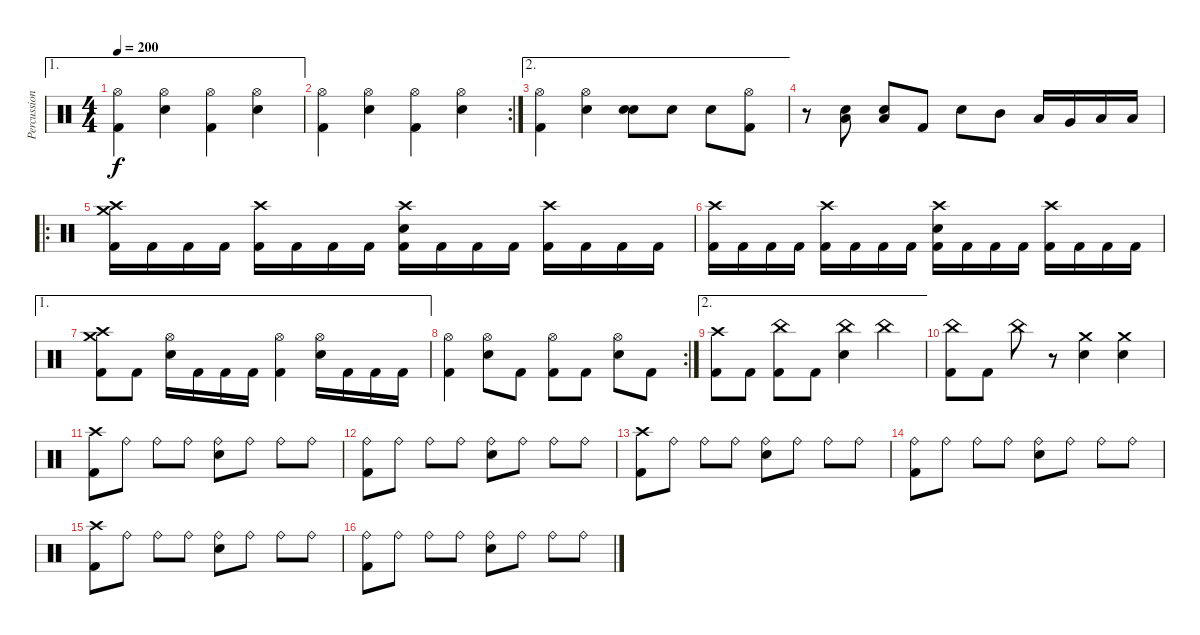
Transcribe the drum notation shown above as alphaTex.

\track ("Percussions" "Percussion") {instrument percussion}
\staff {score}
\articulation defaults
\ae 1
\ts (4 4)
\tempo 200
\clef neutral
\ks c
("Hi-Hat (open)" "Kick (hit) 2").4{dy f} ("Hi-Hat (open)" "Snare (hit) 2").4 ("Hi-Hat (open)" "Kick (hit) 2").4 ("Hi-Hat (open)" "Snare (hit) 2").4 |
\rc 2
("Hi-Hat (open)" "Kick (hit) 2").4 ("Hi-Hat (open)" "Snare (hit) 2").4 ("Hi-Hat (open)" "Kick (hit) 2").4 ("Hi-Hat (open)" "Snare (hit) 2").4 |
\ae 2
("Hi-Hat (open)" "Kick (hit) 2").4 ("Hi-Hat (open)" "Snare (hit) 2").4 ("Snare (hit) 2" "Snare (hit) 2").8{bd 240} "Snare (hit) 2".8 "Snare (hit) 2".8 ("Hi-Hat (open)" "Kick (hit) 2").8 |
r.8 ("Low Floor Tom (hit)" "Snare (hit) 2").8 ("Low Floor Tom (hit)" "Snare (hit) 2").8 "Kick (hit) 2".8 "Snare (hit) 2".8 "Mid Tom (hit)".8 "Low Tom (hit)".16 "Very Low Tom (hit)".16 "Low Floor Tom (hit)".16 "Low Floor Tom (hit)".16 |
\ro
("Crash high (hit)" "Crash medium (hit)" "Kick (hit) 2").16 "Kick (hit) 2".16 "Kick (hit) 2".16 "Kick (hit) 2".16 ("Crash high (hit)" "Kick (hit) 2").16 "Kick (hit) 2".16 "Kick (hit) 2".16 "Kick (hit) 2".16 ("Crash high (hit)" "Snare (hit) 2" "Kick (hit) 2").16 "Kick (hit) 2".16 "Kick (hit) 2".16 "Kick (hit) 2".16 ("Crash high (hit)" "Kick (hit) 2").16 "Kick (hit) 2".16 "Kick (hit) 2".16 "Kick (hit) 2".16 |
("Crash high (hit)" "Kick (hit) 2").16 "Kick (hit) 2".16 "Kick (hit) 2".16 "Kick (hit) 2".16 ("Crash high (hit)" "Kick (hit) 2").16 "Kick (hit) 2".16 "Kick (hit) 2".16 "Kick (hit) 2".16 ("Crash high (hit)" "Snare (hit) 2" "Kick (hit) 2").16 "Kick (hit) 2".16 "Kick (hit) 2".16 "Kick (hit) 2".16 ("Crash high (hit)" "Kick (hit) 2").16 "Kick (hit) 2".16 "Kick (hit) 2".16 "Kick (hit) 2".16 |
\ae 1
("Crash medium (hit)" "Crash high (hit)" "Kick (hit) 2").8 "Kick (hit) 2".8 ("Hi-Hat (open)" "Snare (hit) 2").16 "Kick (hit) 2".16 "Kick (hit) 2".16 "Kick (hit) 2".16 ("Hi-Hat (open)" "Kick (hit) 2").4 ("Hi-Hat (open)" "Snare (hit) 2").16 "Kick (hit) 2".16 "Kick (hit) 2".16 "Kick (hit) 2".16 |
\rc 2
("Hi-Hat (open)" "Kick (hit) 2").4 ("Hi-Hat (open)" "Snare (hit) 2").8 "Kick (hit) 2".8 ("Hi-Hat (open)" "Kick (hit) 2").8 "Kick (hit) 2".8 ("Hi-Hat (open)" "Snare (hit) 2").8 "Kick (hit) 2".8 |
\ae 2
("Crash high (hit)" "Kick (hit) 2").8 "Kick (hit) 2".8 ("China (hit)" "Kick (hit) 2").8 "Kick (hit) 2".8 ("China (hit)" "Snare (hit) 2").4 "China (hit)".4 |
("China (hit)" "Kick (hit) 2").8 "Kick (hit) 2".8 "China (hit)".8 r.8 ("Crash medium (hit)" "Snare (hit) 2").4 ("Crash medium (hit)" "Snare (hit) 2").4 |
("Crash high (hit)" "Kick (hit) 2").8 "Ride (bell)".8 "Ride (bell)".8 "Ride (bell)".8 ("Ride (bell)" "Snare (hit) 2").8 "Ride (bell)".8 "Ride (bell)".8 "Ride (bell)".8 |
("Ride (bell)" "Kick (hit) 2").8 "Ride (bell)".8 "Ride (bell)".8 "Ride (bell)".8 ("Ride (bell)" "Snare (hit) 2").8 "Ride (bell)".8 "Ride (bell)".8 "Ride (bell)".8 |
("Crash high (hit)" "Kick (hit) 2").8 "Ride (bell)".8 "Ride (bell)".8 "Ride (bell)".8 ("Ride (bell)" "Snare (hit) 2").8 "Ride (bell)".8 "Ride (bell)".8 "Ride (bell)".8 |
("Ride (bell)" "Kick (hit) 2").8 "Ride (bell)".8 "Ride (bell)".8 "Ride (bell)".8 ("Ride (bell)" "Snare (hit) 2").8 "Ride (bell)".8 "Ride (bell)".8 "Ride (bell)".8 |
("Crash high (hit)" "Kick (hit) 2").8 "Ride (bell)".8 "Ride (bell)".8 "Ride (bell)".8 ("Ride (bell)" "Snare (hit) 2").8 "Ride (bell)".8 "Ride (bell)".8 "Ride (bell)".8 |
("Ride (bell)" "Kick (hit) 2").8 "Ride (bell)".8 "Ride (bell)".8 "Ride (bell)".8 ("Ride (bell)" "Snare (hit) 2").8 "Ride (bell)".8 "Ride (bell)".8 "Ride (bell)".8
